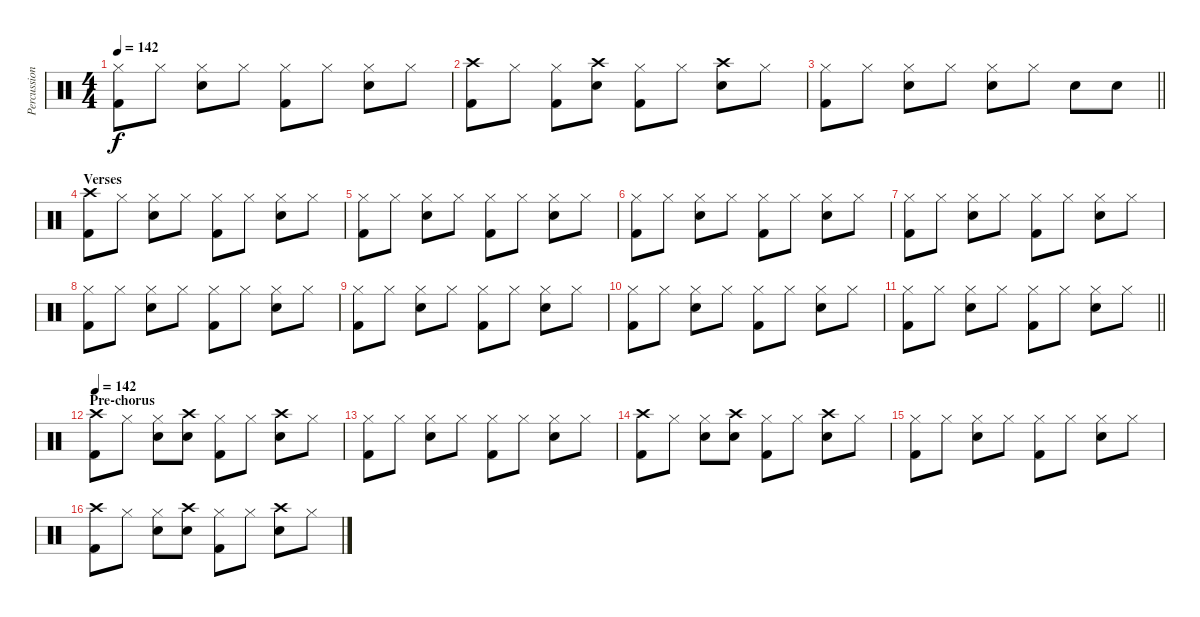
\track ("Percussion" "Percussion") {instrument percussion}
\staff {score}
\articulation defaults
\ts (4 4)
\tempo 142
\clef neutral
\ks c
("Hi-Hat (closed)" "Kick (hit) 2").8{dy f} "Hi-Hat (closed)".8 ("Hi-Hat (closed)" "Electric Snare (hit)").8 "Hi-Hat (closed)".8 ("Hi-Hat (closed)" "Kick (hit) 2").8 "Hi-Hat (closed)".8 ("Hi-Hat (closed)" "Electric Snare (hit)").8 "Hi-Hat (closed)".8 |
("Crash high (hit)" "Kick (hit) 2").8 "Hi-Hat (closed)".8 ("Hi-Hat (closed)" "Kick (hit) 2").8 ("Crash high (hit)" "Electric Snare (hit)").8 ("Hi-Hat (closed)" "Kick (hit) 2").8 "Hi-Hat (closed)".8 ("Crash high (hit)" "Electric Snare (hit)").8 "Hi-Hat (closed)".8 |
\barLineRight lightlight
("Hi-Hat (closed)" "Kick (hit) 2").8 "Hi-Hat (closed)".8 ("Hi-Hat (closed)" "Electric Snare (hit)").8 "Hi-Hat (closed)".8 ("Hi-Hat (closed)" "Electric Snare (hit)").8 "Hi-Hat (closed)".8 "Electric Snare (hit)".8 "Electric Snare (hit)".8 |
\section ("" "Verses")
("Crash high (hit)" "Kick (hit) 2").8 "Hi-Hat (closed)".8 ("Hi-Hat (closed)" "Electric Snare (hit)").8 "Hi-Hat (closed)".8 ("Hi-Hat (closed)" "Kick (hit) 2").8 "Hi-Hat (closed)".8 ("Hi-Hat (closed)" "Electric Snare (hit)").8 "Hi-Hat (closed)".8 |
("Hi-Hat (closed)" "Kick (hit) 2").8 "Hi-Hat (closed)".8 ("Hi-Hat (closed)" "Electric Snare (hit)").8 "Hi-Hat (closed)".8 ("Hi-Hat (closed)" "Kick (hit) 2").8 "Hi-Hat (closed)".8 ("Hi-Hat (closed)" "Electric Snare (hit)").8 "Hi-Hat (closed)".8 |
("Hi-Hat (closed)" "Kick (hit) 2").8 "Hi-Hat (closed)".8 ("Hi-Hat (closed)" "Electric Snare (hit)").8 "Hi-Hat (closed)".8 ("Hi-Hat (closed)" "Kick (hit) 2").8 "Hi-Hat (closed)".8 ("Hi-Hat (closed)" "Electric Snare (hit)").8 "Hi-Hat (closed)".8 |
("Hi-Hat (closed)" "Kick (hit) 2").8 "Hi-Hat (closed)".8 ("Hi-Hat (closed)" "Electric Snare (hit)").8 "Hi-Hat (closed)".8 ("Hi-Hat (closed)" "Kick (hit) 2").8 "Hi-Hat (closed)".8 ("Hi-Hat (closed)" "Electric Snare (hit)").8 "Hi-Hat (closed)".8 |
("Hi-Hat (closed)" "Kick (hit) 2").8 "Hi-Hat (closed)".8 ("Hi-Hat (closed)" "Electric Snare (hit)").8 "Hi-Hat (closed)".8 ("Hi-Hat (closed)" "Kick (hit) 2").8 "Hi-Hat (closed)".8 ("Hi-Hat (closed)" "Electric Snare (hit)").8 "Hi-Hat (closed)".8 |
("Hi-Hat (closed)" "Kick (hit) 2").8 "Hi-Hat (closed)".8 ("Hi-Hat (closed)" "Electric Snare (hit)").8 "Hi-Hat (closed)".8 ("Hi-Hat (closed)" "Kick (hit) 2").8 "Hi-Hat (closed)".8 ("Hi-Hat (closed)" "Electric Snare (hit)").8 "Hi-Hat (closed)".8 |
("Hi-Hat (closed)" "Kick (hit) 2").8 "Hi-Hat (closed)".8 ("Hi-Hat (closed)" "Electric Snare (hit)").8 "Hi-Hat (closed)".8 ("Hi-Hat (closed)" "Kick (hit) 2").8 "Hi-Hat (closed)".8 ("Hi-Hat (closed)" "Electric Snare (hit)").8 "Hi-Hat (closed)".8 |
\barLineRight lightlight
("Hi-Hat (closed)" "Kick (hit) 2").8 "Hi-Hat (closed)".8 ("Hi-Hat (closed)" "Electric Snare (hit)").8 "Hi-Hat (closed)".8 ("Hi-Hat (closed)" "Kick (hit) 2").8 "Hi-Hat (closed)".8 ("Hi-Hat (closed)" "Electric Snare (hit)").8 "Hi-Hat (closed)".8 |
\section ("" "Pre-chorus")
\tempo 142
("Crash high (hit)" "Kick (hit) 2").8 "Hi-Hat (closed)".8 ("Hi-Hat (closed)" "Electric Snare (hit)").8 ("Crash high (hit)" "Electric Snare (hit)").8 ("Hi-Hat (closed)" "Kick (hit) 2").8 "Hi-Hat (closed)".8 ("Crash high (hit)" "Electric Snare (hit)").8 "Hi-Hat (closed)".8 |
("Hi-Hat (closed)" "Kick (hit) 2").8 "Hi-Hat (closed)".8 ("Hi-Hat (closed)" "Electric Snare (hit)").8 "Hi-Hat (closed)".8 ("Hi-Hat (closed)" "Kick (hit) 2").8 "Hi-Hat (closed)".8 ("Hi-Hat (closed)" "Electric Snare (hit)").8 "Hi-Hat (closed)".8 |
("Crash high (hit)" "Kick (hit) 2").8 "Hi-Hat (closed)".8 ("Hi-Hat (closed)" "Electric Snare (hit)").8 ("Crash high (hit)" "Electric Snare (hit)").8 ("Hi-Hat (closed)" "Kick (hit) 2").8 "Hi-Hat (closed)".8 ("Crash high (hit)" "Electric Snare (hit)").8 "Hi-Hat (closed)".8 |
("Hi-Hat (closed)" "Kick (hit) 2").8 "Hi-Hat (closed)".8 ("Hi-Hat (closed)" "Electric Snare (hit)").8 "Hi-Hat (closed)".8 ("Hi-Hat (closed)" "Kick (hit) 2").8 "Hi-Hat (closed)".8 ("Hi-Hat (closed)" "Electric Snare (hit)").8 "Hi-Hat (closed)".8 |
("Crash high (hit)" "Kick (hit) 2").8 "Hi-Hat (closed)".8 ("Hi-Hat (closed)" "Electric Snare (hit)").8 ("Crash high (hit)" "Electric Snare (hit)").8 ("Hi-Hat (closed)" "Kick (hit) 2").8 "Hi-Hat (closed)".8 ("Crash high (hit)" "Electric Snare (hit)").8 "Hi-Hat (closed)".8
